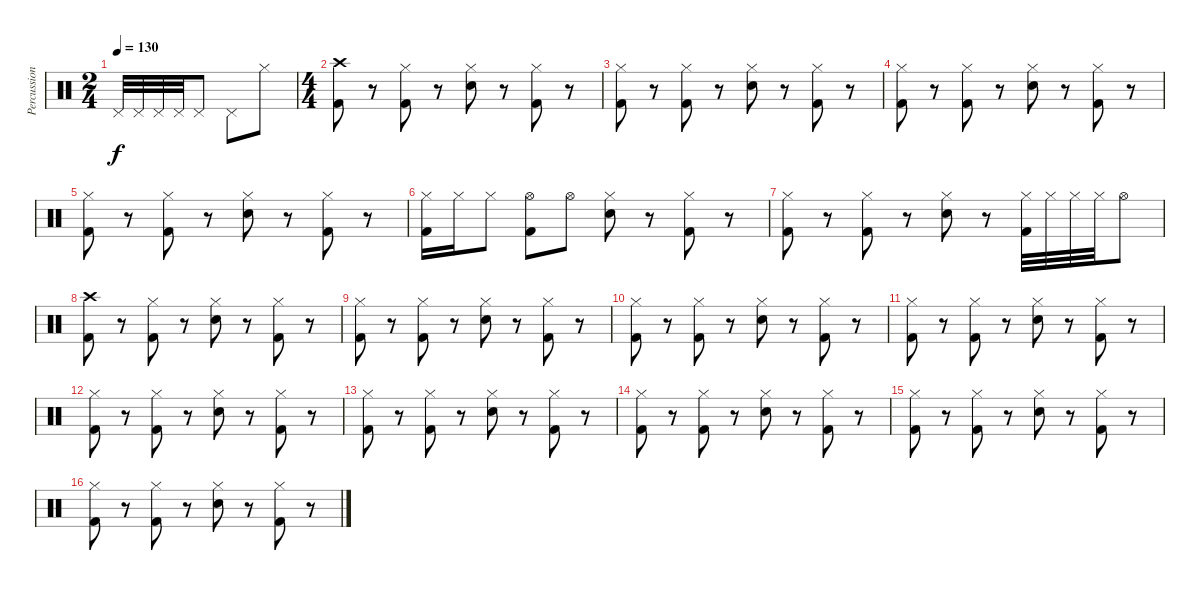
\track ("Percussion" "Percussion") {instrument percussion}
\staff {score}
\articulation defaults
\ts (2 4)
\tempo 130
\clef neutral
\ks c "Pedal Hi-Hat (hit)".32{dy f} "Pedal Hi-Hat (hit)".32 "Pedal Hi-Hat (hit)".32 "Pedal Hi-Hat (hit)".32 "Pedal Hi-Hat (hit)".8 "Pedal Hi-Hat (hit)".8 "Hi-Hat (closed)".8
|
\ts (4 4)
("Crash high (hit)" "Kick (hit) 2").8 r.8 ("Hi-Hat (closed)" "Kick (hit) 2").8 r.8 ("Hi-Hat (closed)" "Snare (hit) 2").8 r.8 ("Hi-Hat (closed)" "Kick (hit) 2").8 r.8 |
("Hi-Hat (closed)" "Kick (hit) 2").8 r.8 ("Hi-Hat (closed)" "Kick (hit) 2").8 r.8 ("Hi-Hat (closed)" "Snare (hit) 2").8 r.8 ("Hi-Hat (closed)" "Kick (hit) 2").8 r.8 |
("Hi-Hat (closed)" "Kick (hit) 2").8 r.8 ("Hi-Hat (closed)" "Kick (hit) 2").8 r.8 ("Hi-Hat (closed)" "Snare (hit) 2").8 r.8 ("Hi-Hat (closed)" "Kick (hit) 2").8 r.8 |
("Hi-Hat (closed)" "Kick (hit) 2").8 r.8 ("Hi-Hat (closed)" "Kick (hit) 2").8 r.8 ("Hi-Hat (closed)" "Snare (hit) 2").8 r.8 ("Hi-Hat (closed)" "Kick (hit) 2").8 r.8 |
("Hi-Hat (closed)" "Kick (hit) 2").16 "Hi-Hat (closed)".16 "Hi-Hat (closed)".8 ("Hi-Hat (open)" "Kick (hit) 2").8 "Hi-Hat (open)".8 ("Hi-Hat (closed)" "Snare (hit) 2").8 r.8 ("Hi-Hat (closed)" "Kick (hit) 2").8 r.8 |
("Hi-Hat (closed)" "Kick (hit) 2").8 r.8 ("Hi-Hat (closed)" "Kick (hit) 2").8 r.8 ("Hi-Hat (closed)" "Snare (hit) 2").8 r.8 ("Hi-Hat (closed)" "Kick (hit) 2").32 "Hi-Hat (closed)".32 "Hi-Hat (closed)".32 "Hi-Hat (closed)".32 "Hi-Hat (open)".8 |
("Crash high (hit)" "Kick (hit) 2").8 r.8 ("Hi-Hat (closed)" "Kick (hit) 2").8 r.8 ("Hi-Hat (closed)" "Snare (hit) 2").8 r.8 ("Hi-Hat (closed)" "Kick (hit) 2").8 r.8 |
("Hi-Hat (closed)" "Kick (hit) 2").8 r.8 ("Hi-Hat (closed)" "Kick (hit) 2").8 r.8 ("Hi-Hat (closed)" "Snare (hit) 2").8 r.8 ("Hi-Hat (closed)" "Kick (hit) 2").8 r.8 |
("Hi-Hat (closed)" "Kick (hit) 2").8 r.8 ("Hi-Hat (closed)" "Kick (hit) 2").8 r.8 ("Hi-Hat (closed)" "Snare (hit) 2").8 r.8 ("Hi-Hat (closed)" "Kick (hit) 2").8 r.8 |
("Hi-Hat (closed)" "Kick (hit) 2").8 r.8 ("Hi-Hat (closed)" "Kick (hit) 2").8 r.8 ("Hi-Hat (closed)" "Snare (hit) 2").8 r.8 ("Hi-Hat (closed)" "Kick (hit) 2").8 r.8 |
("Hi-Hat (closed)" "Kick (hit) 2").8 r.8 ("Hi-Hat (closed)" "Kick (hit) 2").8 r.8 ("Hi-Hat (closed)" "Snare (hit) 2").8 r.8 ("Hi-Hat (closed)" "Kick (hit) 2").8 r.8 |
("Hi-Hat (closed)" "Kick (hit) 2").8 r.8 ("Hi-Hat (closed)" "Kick (hit) 2").8 r.8 ("Hi-Hat (closed)" "Snare (hit) 2").8 r.8 ("Hi-Hat (closed)" "Kick (hit) 2").8 r.8 |
("Hi-Hat (closed)" "Kick (hit) 2").8 r.8 ("Hi-Hat (closed)" "Kick (hit) 2").8 r.8 ("Hi-Hat (closed)" "Snare (hit) 2").8 r.8 ("Hi-Hat (closed)" "Kick (hit) 2").8 r.8 |
("Hi-Hat (closed)" "Kick (hit) 2").8 r.8 ("Hi-Hat (closed)" "Kick (hit) 2").8 r.8 ("Hi-Hat (closed)" "Snare (hit) 2").8 r.8 ("Hi-Hat (closed)" "Kick (hit) 2").8 r.8 |
("Hi-Hat (closed)" "Kick (hit) 2").8 r.8 ("Hi-Hat (closed)" "Kick (hit) 2").8 r.8 ("Hi-Hat (closed)" "Snare (hit) 2").8 r.8 ("Hi-Hat (closed)" "Kick (hit) 2").8 r.8
